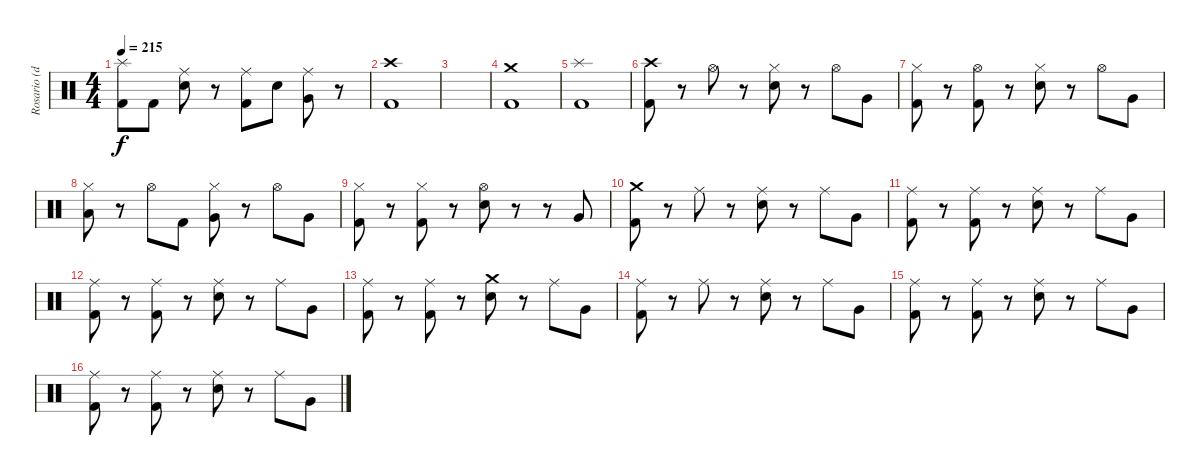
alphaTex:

\track ("Rosario (drum)" "Rosario (d") {instrument percussion}
\staff {score}
\articulation defaults
\ts (4 4)
\tempo 215
\clef neutral
\ks c
("Splash (hit)" "Kick (hit) 2").8{dy f} "Kick (hit) 2".8 ("Ride (middle)" "Electric Snare (hit)").8 r.8 ("Ride (middle)" "Kick (hit) 2").8 "Electric Snare (hit)".8 ("Ride (middle)" "Very Low Tom (hit)").8 r.8 |
("Crash high (hit)" "Kick (hit) 2").1 |
|
("Crash medium (hit)" "Kick (hit) 2").1 |
("Splash (hit)" "Kick (hit) 2").1 |
("Crash high (hit)" "Kick (hit) 2").8 r.8 "Hi-Hat (open)".8 r.8 ("Hi-Hat (closed)" "Electric Snare (hit)").8 r.8 "Hi-Hat (open)".8 "Very Low Tom (hit)".8 |
("Hi-Hat (closed)" "Kick (hit) 2").8 r.8 ("Hi-Hat (open)" "Kick (hit) 2").8 r.8 ("Hi-Hat (closed)" "Electric Snare (hit)").8 r.8 "Hi-Hat (open)".8 "Very Low Tom (hit)".8 |
("Hi-Hat (closed)" "Low Tom (hit)").8 r.8 "Hi-Hat (open)".8 "Kick (hit) 2".8 ("Hi-Hat (closed)" "Very Low Tom (hit)").8 r.8 "Hi-Hat (open)".8 "Very Low Tom (hit)".8 |
("Hi-Hat (closed)" "Kick (hit) 2").8 r.8 ("Hi-Hat (closed)" "Kick (hit) 2").8 r.8 ("Hi-Hat (open)" "Electric Snare (hit)").8 r.8 r.8 "Very Low Tom (hit)".8 |
("Crash medium (hit)" "Kick (hit) 2").8 r.8 "Ride (middle)".8 r.8 ("Ride (middle)" "Electric Snare (hit)").8 r.8 "Ride (middle)".8 "Very Low Tom (hit)".8 |
("Ride (middle)" "Kick (hit) 2").8 r.8 ("Ride (middle)" "Kick (hit) 2").8 r.8 ("Ride (middle)" "Electric Snare (hit)").8 r.8 "Ride (middle)".8 "Very Low Tom (hit)".8 |
("Ride (middle)" "Kick (hit) 2").8 r.8 ("Ride (middle)" "Kick (hit) 2").8 r.8 ("Ride (middle)" "Electric Snare (hit)").8 r.8 "Ride (middle)".8 "Very Low Tom (hit)".8 |
("Ride (middle)" "Kick (hit) 2").8 r.8 ("Ride (middle)" "Kick (hit) 2").8 r.8 ("Crash medium (hit)" "Electric Snare (hit)").8 r.8 "Ride (middle)".8 "Very Low Tom (hit)".8 |
("Ride (middle)" "Kick (hit) 2").8 r.8 "Ride (middle)".8 r.8 ("Ride (middle)" "Electric Snare (hit)").8 r.8 "Ride (middle)".8 "Very Low Tom (hit)".8 |
("Ride (middle)" "Kick (hit) 2").8 r.8 ("Ride (middle)" "Kick (hit) 2").8 r.8 ("Ride (middle)" "Electric Snare (hit)").8 r.8 "Ride (middle)".8 "Very Low Tom (hit)".8 |
("Ride (middle)" "Kick (hit) 2").8 r.8 ("Ride (middle)" "Kick (hit) 2").8 r.8 ("Ride (middle)" "Electric Snare (hit)").8 r.8 "Ride (middle)".8 "Very Low Tom (hit)".8
